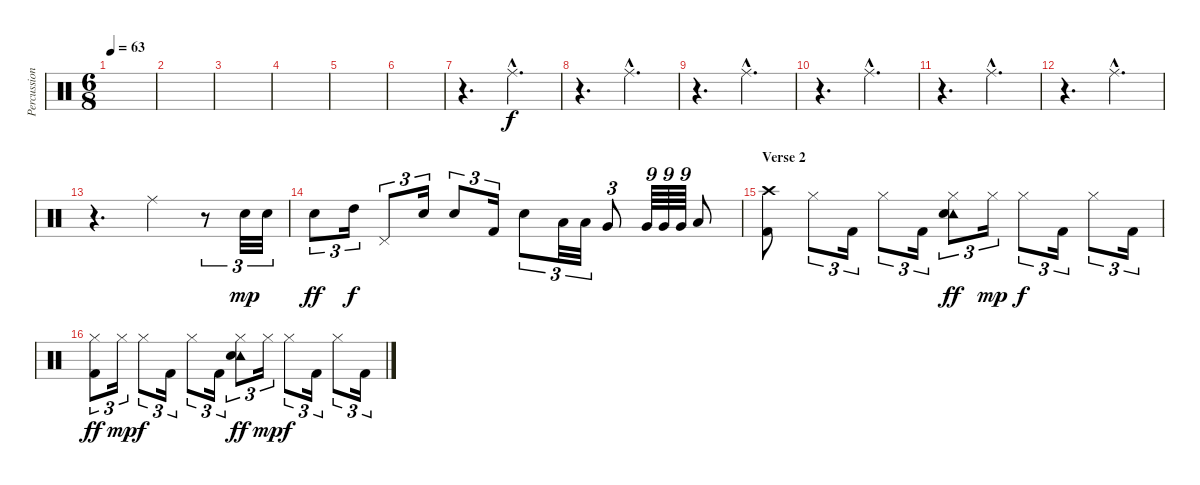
\track ("Percussion" "Percussion") {instrument percussion}
\staff {score}
\articulation defaults
\ts (6 8)
\tempo 63
\clef neutral
\ks c
|
|
|
|
|
|
r.4{d} "Ride (middle)"{hac}.4{d} |
r.4{d} "Ride (middle)"{hac}.4{d} |
r.4{d} "Ride (middle)"{hac}.4{d} |
r.4{d} "Ride (middle)"{hac}.4{d} |
r.4{d} "Ride (middle)"{hac}.4{d} |
r.4{d} "Ride (middle)"{hac}.4{d} |
r.4{d} "Ride (middle)".4 r.8{tu (3 2)} "Electric Snare (hit)".32{tu (3 2) dy mp} "Electric Snare (hit)".32{tu (3 2)} |
"Electric Snare (hit)".8{tu (3 2) dy ff} "High Tom (hit)".16{tu (3 2) dy f} "Pedal Hi-Hat (hit)".8{tu (3 2)} "Electric Snare (hit)".16{tu (3 2)} "Electric Snare (hit)".8{tu (3 2)} "Kick (hit) 2".16{tu (3 2)} "Electric Snare (hit)".8{tu (3 2)} "Low Tom (hit)".32{tu (3 2)} "Low Tom (hit)".32{tu (3 2)} "Very Low Tom (hit)".8{tu (3 2)} "Very Low Tom (hit)".64{tu (9 8)} "Very Low Tom (hit)".64{tu (9 8)} "Very Low Tom (hit)".64{tu (9 8)} "Low Floor Tom (hit)".8 |
\section ("" "Verse 2")
("Crash high (hit)" "Kick (hit) 2").8 "Hi-Hat (closed)".8{tu (3 2)} "Kick (hit) 2".16{tu (3 2)} "Hi-Hat (closed)".8{tu (3 2)} "Kick (hit) 2".16{tu (3 2)} ("Hi-Hat (closed)" "Tambourine (hit)" "Electric Snare (hit)").8{tu (3 2) dy ff} "Hi-Hat (closed)".16{tu (3 2) dy mp} "Hi-Hat (closed)".8{tu (3 2) dy f} "Kick (hit) 2".16{tu (3 2)} "Hi-Hat (closed)".8{tu (3 2)} "Kick (hit) 2".16{tu (3 2)} |
("Hi-Hat (closed)" "Kick (hit) 2").8{tu (3 2) dy ff} "Hi-Hat (closed)".16{tu (3 2) dy mp} "Hi-Hat (closed)".8{tu (3 2) dy f} "Kick (hit) 2".16{tu (3 2)} "Hi-Hat (closed)".8{tu (3 2)} "Kick (hit) 2".16{tu (3 2)} ("Hi-Hat (closed)" "Tambourine (hit)" "Electric Snare (hit)").8{tu (3 2) dy ff} "Hi-Hat (closed)".16{tu (3 2) dy mp} "Hi-Hat (closed)".8{tu (3 2) dy f} "Kick (hit) 2".16{tu (3 2)} "Hi-Hat (closed)".8{tu (3 2)} "Kick (hit) 2".16{tu (3 2)}
